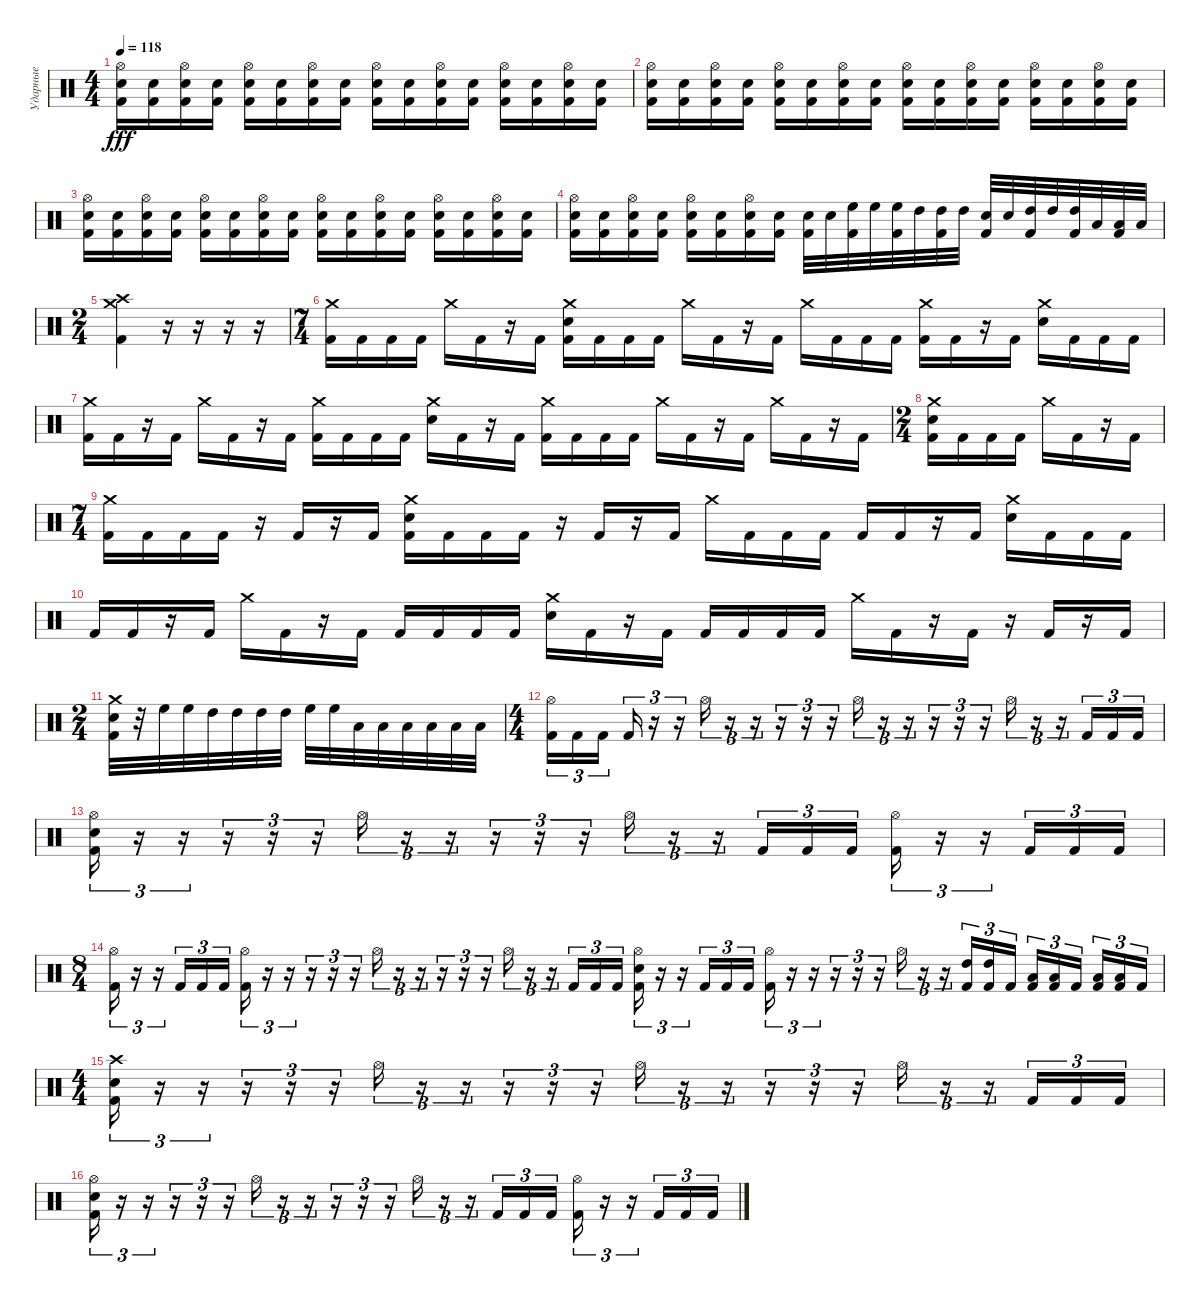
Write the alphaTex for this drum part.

\track ("Ударные" "Ударные") {instrument percussion}
\staff {score}
\articulation defaults
\ts (4 4)
\tempo 118
\clef neutral
\ks c
("Hi-Hat (open)" "Electric Snare (hit)" "Kick (hit) 2").16{dy fff} ("Electric Snare (hit)" "Kick (hit) 2").16 ("Hi-Hat (open)" "Electric Snare (hit)" "Kick (hit) 2").16 ("Electric Snare (hit)" "Kick (hit) 2").16 ("Hi-Hat (open)" "Electric Snare (hit)" "Kick (hit) 2").16 ("Electric Snare (hit)" "Kick (hit) 2").16 ("Hi-Hat (open)" "Electric Snare (hit)" "Kick (hit) 2").16 ("Electric Snare (hit)" "Kick (hit) 2").16 ("Hi-Hat (open)" "Electric Snare (hit)" "Kick (hit) 2").16 ("Electric Snare (hit)" "Kick (hit) 2").16 ("Hi-Hat (open)" "Electric Snare (hit)" "Kick (hit) 2").16 ("Electric Snare (hit)" "Kick (hit) 2").16 ("Hi-Hat (open)" "Electric Snare (hit)" "Kick (hit) 2").16 ("Electric Snare (hit)" "Kick (hit) 2").16 ("Hi-Hat (open)" "Electric Snare (hit)" "Kick (hit) 2").16 ("Electric Snare (hit)" "Kick (hit) 2").16 |
("Hi-Hat (open)" "Electric Snare (hit)" "Kick (hit) 2").16 ("Electric Snare (hit)" "Kick (hit) 2").16 ("Hi-Hat (open)" "Electric Snare (hit)" "Kick (hit) 2").16 ("Electric Snare (hit)" "Kick (hit) 2").16 ("Hi-Hat (open)" "Electric Snare (hit)" "Kick (hit) 2").16 ("Electric Snare (hit)" "Kick (hit) 2").16 ("Hi-Hat (open)" "Electric Snare (hit)" "Kick (hit) 2").16 ("Electric Snare (hit)" "Kick (hit) 2").16 ("Hi-Hat (open)" "Electric Snare (hit)" "Kick (hit) 2").16 ("Electric Snare (hit)" "Kick (hit) 2").16 ("Hi-Hat (open)" "Electric Snare (hit)" "Kick (hit) 2").16 ("Electric Snare (hit)" "Kick (hit) 2").16 ("Hi-Hat (open)" "Electric Snare (hit)" "Kick (hit) 2").16 ("Electric Snare (hit)" "Kick (hit) 2").16 ("Hi-Hat (open)" "Electric Snare (hit)" "Kick (hit) 2").16 ("Electric Snare (hit)" "Kick (hit) 2").16 |
("Hi-Hat (open)" "Electric Snare (hit)" "Kick (hit) 2").16 ("Electric Snare (hit)" "Kick (hit) 2").16 ("Hi-Hat (open)" "Electric Snare (hit)" "Kick (hit) 2").16 ("Electric Snare (hit)" "Kick (hit) 2").16 ("Hi-Hat (open)" "Electric Snare (hit)" "Kick (hit) 2").16 ("Electric Snare (hit)" "Kick (hit) 2").16 ("Hi-Hat (open)" "Electric Snare (hit)" "Kick (hit) 2").16 ("Electric Snare (hit)" "Kick (hit) 2").16 ("Hi-Hat (open)" "Electric Snare (hit)" "Kick (hit) 2").16 ("Electric Snare (hit)" "Kick (hit) 2").16 ("Hi-Hat (open)" "Electric Snare (hit)" "Kick (hit) 2").16 ("Electric Snare (hit)" "Kick (hit) 2").16 ("Hi-Hat (open)" "Electric Snare (hit)" "Kick (hit) 2").16 ("Electric Snare (hit)" "Kick (hit) 2").16 ("Hi-Hat (open)" "Electric Snare (hit)" "Kick (hit) 2").16 ("Electric Snare (hit)" "Kick (hit) 2").16 |
("Hi-Hat (open)" "Electric Snare (hit)" "Kick (hit) 2").16 ("Electric Snare (hit)" "Kick (hit) 2").16 ("Hi-Hat (open)" "Electric Snare (hit)" "Kick (hit) 2").16 ("Electric Snare (hit)" "Kick (hit) 2").16 ("Hi-Hat (open)" "Electric Snare (hit)" "Kick (hit) 2").16 ("Electric Snare (hit)" "Kick (hit) 2").16 ("Hi-Hat (open)" "Electric Snare (hit)" "Kick (hit) 2").16 ("Electric Snare (hit)" "Kick (hit) 2").16 ("Electric Snare (hit)" "Kick (hit) 2").32 "Electric Snare (hit)".32 ("High Floor Tom (hit)" "Kick (hit) 2").32 "High Floor Tom (hit)".32 ("High Floor Tom (hit)" "Kick (hit) 2").32 "High Tom (hit)".32 ("High Tom (hit)" "Kick (hit) 2").32 "High Tom (hit)".32 ("Electric Snare (hit)" "Kick (hit) 2").32 "Electric Snare (hit)".32 ("High Tom (hit)" "Kick (hit) 2").32 "High Tom (hit)".32 ("High Tom (hit)" "Kick (hit) 2").32 "Low Tom (hit)".32 ("Low Tom (hit)" "Kick (hit) 2").32 "Low Tom (hit)".32 |
\ts (2 4)
("Crash medium (hit)" "Crash high (hit)" "Kick (hit) 2").4 r.16 r.16 r.16 r.16 |
\ts (7 4)
("Crash medium (hit)" "Kick (hit) 2").16 "Kick (hit) 2".16 "Kick (hit) 2".16 "Kick (hit) 2".16 "Crash medium (hit)".16 "Kick (hit) 2".16 r.16 "Kick (hit) 2".16 ("Crash medium (hit)" "Electric Snare (hit)" "Kick (hit) 2").16 "Kick (hit) 2".16 "Kick (hit) 2".16 "Kick (hit) 2".16 "Crash medium (hit)".16 "Kick (hit) 2".16 r.16 "Kick (hit) 2".16 "Crash medium (hit)".16 "Kick (hit) 2".16 "Kick (hit) 2".16 "Kick (hit) 2".16 ("Crash medium (hit)" "Kick (hit) 2").16 "Kick (hit) 2".16 r.16 "Kick (hit) 2".16 ("Crash medium (hit)" "Electric Snare (hit)").16 "Kick (hit) 2".16 "Kick (hit) 2".16 "Kick (hit) 2".16 |
("Crash medium (hit)" "Kick (hit) 2").16 "Kick (hit) 2".16 r.16 "Kick (hit) 2".16 "Crash medium (hit)".16 "Kick (hit) 2".16 r.16 "Kick (hit) 2".16 ("Crash medium (hit)" "Kick (hit) 2").16 "Kick (hit) 2".16 "Kick (hit) 2".16 "Kick (hit) 2".16 ("Crash medium (hit)" "Electric Snare (hit)").16 "Kick (hit) 2".16 r.16 "Kick (hit) 2".16 ("Crash medium (hit)" "Kick (hit) 2").16 "Kick (hit) 2".16 "Kick (hit) 2".16 "Kick (hit) 2".16 "Crash medium (hit)".16 "Kick (hit) 2".16 r.16 "Kick (hit) 2".16 "Crash medium (hit)".16 "Kick (hit) 2".16 r.16 "Kick (hit) 2".16 |
\ts (2 4)
("Crash medium (hit)" "Electric Snare (hit)" "Kick (hit) 2").16 "Kick (hit) 2".16 "Kick (hit) 2".16 "Kick (hit) 2".16 "Crash medium (hit)".16 "Kick (hit) 2".16 r.16 "Kick (hit) 2".16 |
\ts (7 4)
("Crash medium (hit)" "Kick (hit) 2").16 "Kick (hit) 2".16 "Kick (hit) 2".16 "Kick (hit) 2".16 r.16 "Kick (hit) 2".16 r.16 "Kick (hit) 2".16 ("Crash medium (hit)" "Electric Snare (hit)" "Kick (hit) 2").16 "Kick (hit) 2".16 "Kick (hit) 2".16 "Kick (hit) 2".16 r.16 "Kick (hit) 2".16 r.16 "Kick (hit) 2".16 "Crash medium (hit)".16 "Kick (hit) 2".16 "Kick (hit) 2".16 "Kick (hit) 2".16 "Kick (hit) 2".16 "Kick (hit) 2".16 r.16 "Kick (hit) 2".16 ("Crash medium (hit)" "Electric Snare (hit)").16 "Kick (hit) 2".16 "Kick (hit) 2".16 "Kick (hit) 2".16 |
"Kick (hit) 2".16 "Kick (hit) 2".16 r.16 "Kick (hit) 2".16 "Crash medium (hit)".16 "Kick (hit) 2".16 r.16 "Kick (hit) 2".16 "Kick (hit) 2".16 "Kick (hit) 2".16 "Kick (hit) 2".16 "Kick (hit) 2".16 ("Crash medium (hit)" "Electric Snare (hit)").16 "Kick (hit) 2".16 r.16 "Kick (hit) 2".16 "Kick (hit) 2".16 "Kick (hit) 2".16 "Kick (hit) 2".16 "Kick (hit) 2".16 "Crash medium (hit)".16 "Kick (hit) 2".16 r.16 "Kick (hit) 2".16 r.16 "Kick (hit) 2".16 r.16 "Kick (hit) 2".16 |
\ts (2 4)
("Crash medium (hit)" "Electric Snare (hit)" "Kick (hit) 2").32 r.32 "High Floor Tom (hit)".32 "High Floor Tom (hit)".32 "High Tom (hit)".32 "High Tom (hit)".32 "High Tom (hit)".32 "High Tom (hit)".32 "High Floor Tom (hit)".32 "High Floor Tom (hit)".32 "Low Tom (hit)".32 "Low Tom (hit)".32 "Low Tom (hit)".32 "Low Tom (hit)".32 "Low Floor Tom (hit)".32 "Low Floor Tom (hit)".32 |
\ts (4 4)
("Hi-Hat (open)" "Kick (hit) 2").16{tu (3 2)} "Kick (hit) 2".16{tu (3 2)} "Kick (hit) 2".16{tu (3 2) beam splitsecondary} "Kick (hit) 2".16{tu (3 2)} r.16{tu (3 2)} r.16{tu (3 2)} "Hi-Hat (open)".16{tu (3 2)} r.16{tu (3 2)} r.16{tu (3 2)} r.16{tu (3 2)} r.16{tu (3 2)} r.16{tu (3 2)} "Hi-Hat (open)".16{tu (3 2)} r.16{tu (3 2)} r.16{tu (3 2)} r.16{tu (3 2)} r.16{tu (3 2)} r.16{tu (3 2)} "Hi-Hat (open)".16{tu (3 2)} r.16{tu (3 2)} r.16{tu (3 2)} "Kick (hit) 2".16{tu (3 2)} "Kick (hit) 2".16{tu (3 2)} "Kick (hit) 2".16{tu (3 2)} |
("Hi-Hat (open)" "Electric Snare (hit)" "Kick (hit) 2").16{tu (3 2)} r.16{tu (3 2)} r.16{tu (3 2)} r.16{tu (3 2)} r.16{tu (3 2)} r.16{tu (3 2)} "Hi-Hat (open)".16{tu (3 2)} r.16{tu (3 2)} r.16{tu (3 2)} r.16{tu (3 2)} r.16{tu (3 2)} r.16{tu (3 2)} "Hi-Hat (open)".16{tu (3 2)} r.16{tu (3 2)} r.16{tu (3 2)} "Kick (hit) 2".16{tu (3 2)} "Kick (hit) 2".16{tu (3 2)} "Kick (hit) 2".16{tu (3 2)} ("Hi-Hat (open)" "Kick (hit) 2").16{tu (3 2)} r.16{tu (3 2)} r.16{tu (3 2)} "Kick (hit) 2".16{tu (3 2)} "Kick (hit) 2".16{tu (3 2)} "Kick (hit) 2".16{tu (3 2)} |
\ts (8 4)
("Hi-Hat (open)" "Kick (hit) 2").16{tu (3 2)} r.16{tu (3 2)} r.16{tu (3 2)} "Kick (hit) 2".16{tu (3 2)} "Kick (hit) 2".16{tu (3 2)} "Kick (hit) 2".16{tu (3 2)} ("Hi-Hat (open)" "Kick (hit) 2").16{tu (3 2)} r.16{tu (3 2)} r.16{tu (3 2)} r.16{tu (3 2)} r.16{tu (3 2)} r.16{tu (3 2)} "Hi-Hat (open)".16{tu (3 2)} r.16{tu (3 2)} r.16{tu (3 2)} r.16{tu (3 2)} r.16{tu (3 2)} r.16{tu (3 2)} "Hi-Hat (open)".16{tu (3 2)} r.16{tu (3 2)} r.16{tu (3 2)} "Kick (hit) 2".16{tu (3 2)} "Kick (hit) 2".16{tu (3 2)} "Kick (hit) 2".16{tu (3 2)} ("Hi-Hat (open)" "Electric Snare (hit)" "Kick (hit) 2").16{tu (3 2)} r.16{tu (3 2)} r.16{tu (3 2)} "Kick (hit) 2".16{tu (3 2)} "Kick (hit) 2".16{tu (3 2)} "Kick (hit) 2".16{tu (3 2)} ("Hi-Hat (open)" "Kick (hit) 2").16{tu (3 2)} r.16{tu (3 2)} r.16{tu (3 2)} r.16{tu (3 2)} r.16{tu (3 2)} r.16{tu (3 2)} "Hi-Hat (open)".16{tu (3 2)} r.16{tu (3 2)} r.16{tu (3 2)} ("High Tom (hit)" "Kick (hit) 2").16{tu (3 2)} ("High Tom (hit)" "Kick (hit) 2").16{tu (3 2)} "Kick (hit) 2".16{tu (3 2)} ("Low Tom (hit)" "Kick (hit) 2").16{tu (3 2)} ("Low Tom (hit)" "Kick (hit) 2").16{tu (3 2)} "Kick (hit) 2".16{tu (3 2) beam splitsecondary} ("Low Floor Tom (hit)" "Kick (hit) 2").16{tu (3 2)} ("Low Floor Tom (hit)" "Kick (hit) 2").16{tu (3 2)} "Kick (hit) 2".16{tu (3 2)} |
\ts (4 4)
("Crash high (hit)" "Electric Snare (hit)" "Kick (hit) 2").16{tu (3 2)} r.16{tu (3 2)} r.16{tu (3 2)} r.16{tu (3 2)} r.16{tu (3 2)} r.16{tu (3 2)} "Hi-Hat (open)".16{tu (3 2)} r.16{tu (3 2)} r.16{tu (3 2)} r.16{tu (3 2)} r.16{tu (3 2)} r.16{tu (3 2)} "Hi-Hat (open)".16{tu (3 2)} r.16{tu (3 2)} r.16{tu (3 2)} r.16{tu (3 2)} r.16{tu (3 2)} r.16{tu (3 2)} "Hi-Hat (open)".16{tu (3 2)} r.16{tu (3 2)} r.16{tu (3 2)} "Kick (hit) 2".16{tu (3 2)} "Kick (hit) 2".16{tu (3 2)} "Kick (hit) 2".16{tu (3 2)} |
("Hi-Hat (open)" "Electric Snare (hit)" "Kick (hit) 2").16{tu (3 2)} r.16{tu (3 2)} r.16{tu (3 2)} r.16{tu (3 2)} r.16{tu (3 2)} r.16{tu (3 2)} "Hi-Hat (open)".16{tu (3 2)} r.16{tu (3 2)} r.16{tu (3 2)} r.16{tu (3 2)} r.16{tu (3 2)} r.16{tu (3 2)} "Hi-Hat (open)".16{tu (3 2)} r.16{tu (3 2)} r.16{tu (3 2)} "Kick (hit) 2".16{tu (3 2)} "Kick (hit) 2".16{tu (3 2)} "Kick (hit) 2".16{tu (3 2)} ("Hi-Hat (open)" "Kick (hit) 2").16{tu (3 2)} r.16{tu (3 2)} r.16{tu (3 2)} "Kick (hit) 2".16{tu (3 2)} "Kick (hit) 2".16{tu (3 2)} "Kick (hit) 2".16{tu (3 2)}
